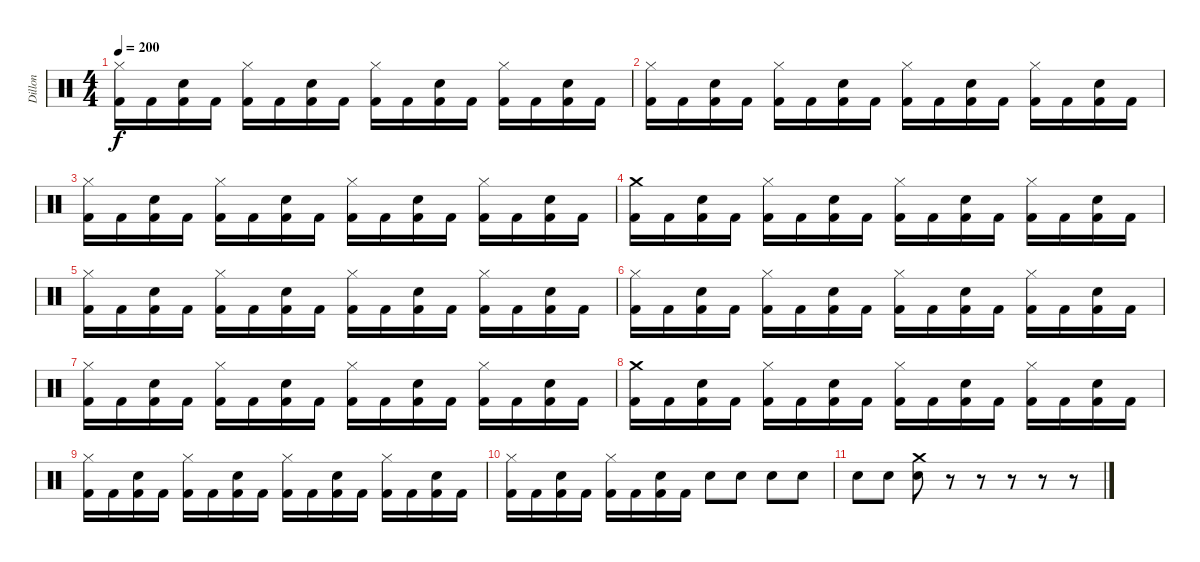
\track ("Dillon" "Dillon") {instrument percussion}
\staff {score}
\articulation defaults
\ts (4 4)
\tempo 200
\clef neutral
\ks c
("Hi-Hat (closed)" "Kick (hit) 2").16{dy f} "Kick (hit) 2".16 ("Electric Snare (hit)" "Kick (hit) 2").16 "Kick (hit) 2".16 ("Hi-Hat (closed)" "Kick (hit) 2").16 "Kick (hit) 2".16 ("Electric Snare (hit)" "Kick (hit) 2").16 "Kick (hit) 2".16 ("Hi-Hat (closed)" "Kick (hit) 2").16 "Kick (hit) 2".16 ("Electric Snare (hit)" "Kick (hit) 2").16 "Kick (hit) 2".16 ("Hi-Hat (closed)" "Kick (hit) 2").16 "Kick (hit) 2".16 ("Electric Snare (hit)" "Kick (hit) 2").16 "Kick (hit) 2".16 |
("Hi-Hat (closed)" "Kick (hit) 2").16 "Kick (hit) 2".16 ("Electric Snare (hit)" "Kick (hit) 2").16 "Kick (hit) 2".16 ("Hi-Hat (closed)" "Kick (hit) 2").16 "Kick (hit) 2".16 ("Electric Snare (hit)" "Kick (hit) 2").16 "Kick (hit) 2".16 ("Hi-Hat (closed)" "Kick (hit) 2").16 "Kick (hit) 2".16 ("Electric Snare (hit)" "Kick (hit) 2").16 "Kick (hit) 2".16 ("Hi-Hat (closed)" "Kick (hit) 2").16 "Kick (hit) 2".16 ("Electric Snare (hit)" "Kick (hit) 2").16 "Kick (hit) 2".16 |
("Hi-Hat (closed)" "Kick (hit) 2").16 "Kick (hit) 2".16 ("Electric Snare (hit)" "Kick (hit) 2").16 "Kick (hit) 2".16 ("Hi-Hat (closed)" "Kick (hit) 2").16 "Kick (hit) 2".16 ("Electric Snare (hit)" "Kick (hit) 2").16 "Kick (hit) 2".16 ("Hi-Hat (closed)" "Kick (hit) 2").16 "Kick (hit) 2".16 ("Electric Snare (hit)" "Kick (hit) 2").16 "Kick (hit) 2".16 ("Hi-Hat (closed)" "Kick (hit) 2").16 "Kick (hit) 2".16 ("Electric Snare (hit)" "Kick (hit) 2").16 "Kick (hit) 2".16 |
("Crash medium (hit)" "Kick (hit) 2").16 "Kick (hit) 2".16 ("Electric Snare (hit)" "Kick (hit) 2").16 "Kick (hit) 2".16 ("Hi-Hat (closed)" "Kick (hit) 2").16 "Kick (hit) 2".16 ("Electric Snare (hit)" "Kick (hit) 2").16 "Kick (hit) 2".16 ("Hi-Hat (closed)" "Kick (hit) 2").16 "Kick (hit) 2".16 ("Electric Snare (hit)" "Kick (hit) 2").16 "Kick (hit) 2".16 ("Hi-Hat (closed)" "Kick (hit) 2").16 "Kick (hit) 2".16 ("Electric Snare (hit)" "Kick (hit) 2").16 "Kick (hit) 2".16 |
("Hi-Hat (closed)" "Kick (hit) 2").16 "Kick (hit) 2".16 ("Electric Snare (hit)" "Kick (hit) 2").16 "Kick (hit) 2".16 ("Hi-Hat (closed)" "Kick (hit) 2").16 "Kick (hit) 2".16 ("Electric Snare (hit)" "Kick (hit) 2").16 "Kick (hit) 2".16 ("Hi-Hat (closed)" "Kick (hit) 2").16 "Kick (hit) 2".16 ("Electric Snare (hit)" "Kick (hit) 2").16 "Kick (hit) 2".16 ("Hi-Hat (closed)" "Kick (hit) 2").16 "Kick (hit) 2".16 ("Electric Snare (hit)" "Kick (hit) 2").16 "Kick (hit) 2".16 |
("Hi-Hat (closed)" "Kick (hit) 2").16 "Kick (hit) 2".16 ("Electric Snare (hit)" "Kick (hit) 2").16 "Kick (hit) 2".16 ("Hi-Hat (closed)" "Kick (hit) 2").16 "Kick (hit) 2".16 ("Electric Snare (hit)" "Kick (hit) 2").16 "Kick (hit) 2".16 ("Hi-Hat (closed)" "Kick (hit) 2").16 "Kick (hit) 2".16 ("Electric Snare (hit)" "Kick (hit) 2").16 "Kick (hit) 2".16 ("Hi-Hat (closed)" "Kick (hit) 2").16 "Kick (hit) 2".16 ("Electric Snare (hit)" "Kick (hit) 2").16 "Kick (hit) 2".16 |
("Hi-Hat (closed)" "Kick (hit) 2").16 "Kick (hit) 2".16 ("Electric Snare (hit)" "Kick (hit) 2").16 "Kick (hit) 2".16 ("Hi-Hat (closed)" "Kick (hit) 2").16 "Kick (hit) 2".16 ("Electric Snare (hit)" "Kick (hit) 2").16 "Kick (hit) 2".16 ("Hi-Hat (closed)" "Kick (hit) 2").16 "Kick (hit) 2".16 ("Electric Snare (hit)" "Kick (hit) 2").16 "Kick (hit) 2".16 ("Hi-Hat (closed)" "Kick (hit) 2").16 "Kick (hit) 2".16 ("Electric Snare (hit)" "Kick (hit) 2").16 "Kick (hit) 2".16 |
("Crash medium (hit)" "Kick (hit) 2").16 "Kick (hit) 2".16 ("Electric Snare (hit)" "Kick (hit) 2").16 "Kick (hit) 2".16 ("Hi-Hat (closed)" "Kick (hit) 2").16 "Kick (hit) 2".16 ("Electric Snare (hit)" "Kick (hit) 2").16 "Kick (hit) 2".16 ("Hi-Hat (closed)" "Kick (hit) 2").16 "Kick (hit) 2".16 ("Electric Snare (hit)" "Kick (hit) 2").16 "Kick (hit) 2".16 ("Hi-Hat (closed)" "Kick (hit) 2").16 "Kick (hit) 2".16 ("Electric Snare (hit)" "Kick (hit) 2").16 "Kick (hit) 2".16 |
("Hi-Hat (closed)" "Kick (hit) 2").16 "Kick (hit) 2".16 ("Electric Snare (hit)" "Kick (hit) 2").16 "Kick (hit) 2".16 ("Hi-Hat (closed)" "Kick (hit) 2").16 "Kick (hit) 2".16 ("Electric Snare (hit)" "Kick (hit) 2").16 "Kick (hit) 2".16 ("Hi-Hat (closed)" "Kick (hit) 2").16 "Kick (hit) 2".16 ("Electric Snare (hit)" "Kick (hit) 2").16 "Kick (hit) 2".16 ("Hi-Hat (closed)" "Kick (hit) 2").16 "Kick (hit) 2".16 ("Electric Snare (hit)" "Kick (hit) 2").16 "Kick (hit) 2".16 |
("Hi-Hat (closed)" "Kick (hit) 2").16 "Kick (hit) 2".16 ("Electric Snare (hit)" "Kick (hit) 2").16 "Kick (hit) 2".16 ("Hi-Hat (closed)" "Kick (hit) 2").16 "Kick (hit) 2".16 ("Electric Snare (hit)" "Kick (hit) 2").16 "Kick (hit) 2".16 "Electric Snare (hit)".8 "Electric Snare (hit)".8 "Electric Snare (hit)".8 "Electric Snare (hit)".8 |
"Electric Snare (hit)".8 "Electric Snare (hit)".8 ("Crash medium (hit)" "Electric Snare (hit)").8 r.8 r.8 r.8 r.8 r.8
